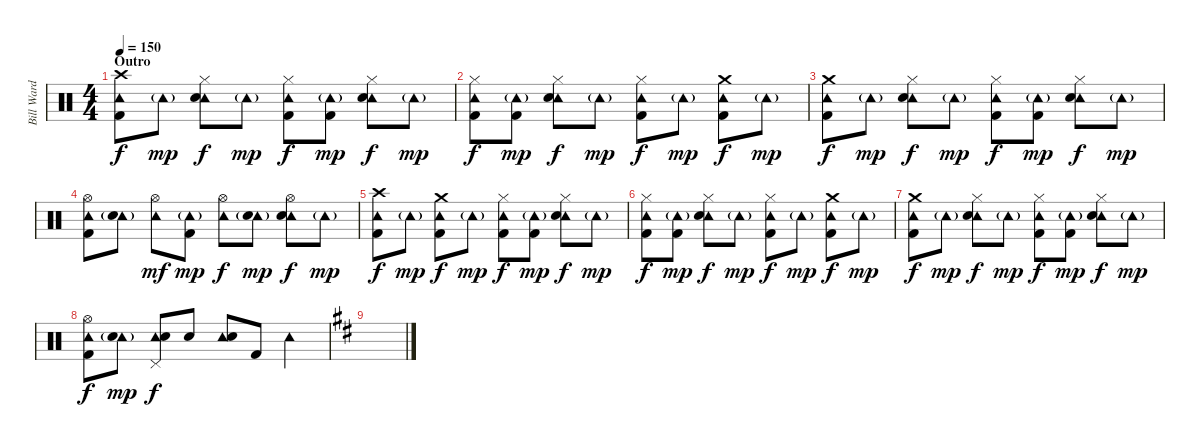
\track ("Bill Ward" "Bill Ward") {instrument percussion}
\staff {score}
\articulation defaults
\ts (4 4)
\section ("" "Outro")
\tempo 150
\clef neutral
\ks c
("Crash high (hit)" "Tambourine (hit)" "Kick (hit) 2").8{dy f} "Tambourine (hit)"{g}.8{dy mp} ("Hi-Hat (closed)" "Tambourine (hit)" "Electric Snare (hit)").8{dy f} "Tambourine (hit)"{g}.8{dy mp} ("Hi-Hat (closed)" "Tambourine (hit)" "Kick (hit) 2").8{dy f} ("Tambourine (hit)"{g} "Kick (hit) 2").8{dy mp} ("Hi-Hat (closed)" "Tambourine (hit)" "Electric Snare (hit)").8{dy f} "Tambourine (hit)"{g}.8{dy mp} |
("Hi-Hat (closed)" "Tambourine (hit)" "Kick (hit) 2").8{dy f} ("Tambourine (hit)"{g} "Kick (hit) 2").8{dy mp} ("Hi-Hat (closed)" "Tambourine (hit)" "Electric Snare (hit)").8{dy f} "Tambourine (hit)"{g}.8{dy mp} ("Hi-Hat (closed)" "Tambourine (hit)" "Kick (hit) 2").8{dy f} "Tambourine (hit)"{g}.8{dy mp} ("Crash medium (hit)" "Tambourine (hit)" "Kick (hit) 2").8{dy f} "Tambourine (hit)"{g}.8{dy mp} |
("Crash medium (hit)" "Tambourine (hit)" "Kick (hit) 2").8{dy f} "Tambourine (hit)"{g}.8{dy mp} ("Hi-Hat (closed)" "Tambourine (hit)" "Electric Snare (hit)").8{dy f} "Tambourine (hit)"{g}.8{dy mp} ("Hi-Hat (closed)" "Tambourine (hit)" "Kick (hit) 2").8{dy f} ("Tambourine (hit)"{g} "Kick (hit) 2").8{dy mp} ("Hi-Hat (closed)" "Tambourine (hit)" "Electric Snare (hit)").8{dy f} "Tambourine (hit)"{g}.8{dy mp} |
("Hi-Hat (open)" "Tambourine (hit)" "Kick (hit) 2").8 ("Tambourine (hit)"{g} "Electric Snare (hit)").8 ("Hi-Hat (open)" "Tambourine (hit)").8{dy mf} ("Tambourine (hit)"{g} "Kick (hit) 2").8{dy mp} ("Hi-Hat (open)" "Tambourine (hit)").8{dy f} ("Tambourine (hit)"{g} "Electric Snare (hit)").8{dy mp} ("Hi-Hat (open)" "Tambourine (hit)" "Electric Snare (hit)").8{dy f} "Tambourine (hit)"{g}.8{dy mp} |
("Crash high (hit)" "Tambourine (hit)" "Kick (hit) 2").8{dy f} "Tambourine (hit)"{g}.8{dy mp} ("Crash medium (hit)" "Tambourine (hit)" "Kick (hit) 2").8{dy f} "Tambourine (hit)"{g}.8{dy mp} ("Hi-Hat (closed)" "Tambourine (hit)" "Kick (hit) 2").8{dy f} ("Tambourine (hit)"{g} "Kick (hit) 2").8{dy mp} ("Hi-Hat (closed)" "Tambourine (hit)" "Electric Snare (hit)").8{dy f} "Tambourine (hit)"{g}.8{dy mp} |
("Hi-Hat (closed)" "Tambourine (hit)" "Kick (hit) 2").8{dy f} ("Tambourine (hit)"{g} "Kick (hit) 2").8{dy mp} ("Hi-Hat (closed)" "Tambourine (hit)" "Electric Snare (hit)").8{dy f} "Tambourine (hit)"{g}.8{dy mp} ("Hi-Hat (closed)" "Tambourine (hit)" "Kick (hit) 2").8{dy f} "Tambourine (hit)"{g}.8{dy mp} ("Crash medium (hit)" "Tambourine (hit)" "Kick (hit) 2").8{dy f} "Tambourine (hit)"{g}.8{dy mp} |
("Crash medium (hit)" "Tambourine (hit)" "Kick (hit) 2").8{dy f} "Tambourine (hit)"{g}.8{dy mp} ("Hi-Hat (closed)" "Tambourine (hit)" "Electric Snare (hit)").8{dy f} "Tambourine (hit)"{g}.8{dy mp} ("Hi-Hat (closed)" "Tambourine (hit)" "Kick (hit) 2").8{dy f} ("Tambourine (hit)"{g} "Kick (hit) 2").8{dy mp} ("Hi-Hat (closed)" "Tambourine (hit)" "Electric Snare (hit)").8{dy f} "Tambourine (hit)"{g}.8{dy mp} |
("Hi-Hat (open)" "Tambourine (hit)" "Kick (hit) 2").8{dy f} ("Tambourine (hit)"{g} "Electric Snare (hit)").8{dy mp} ("Pedal Hi-Hat (hit)" "Tambourine (hit)" "Electric Snare (hit)").8{dy f} "Electric Snare (hit)".8 ("Tambourine (hit)" "Electric Snare (hit)").8 "Kick (hit) 2".8 "Tambourine (hit)".4 |
\ks d
